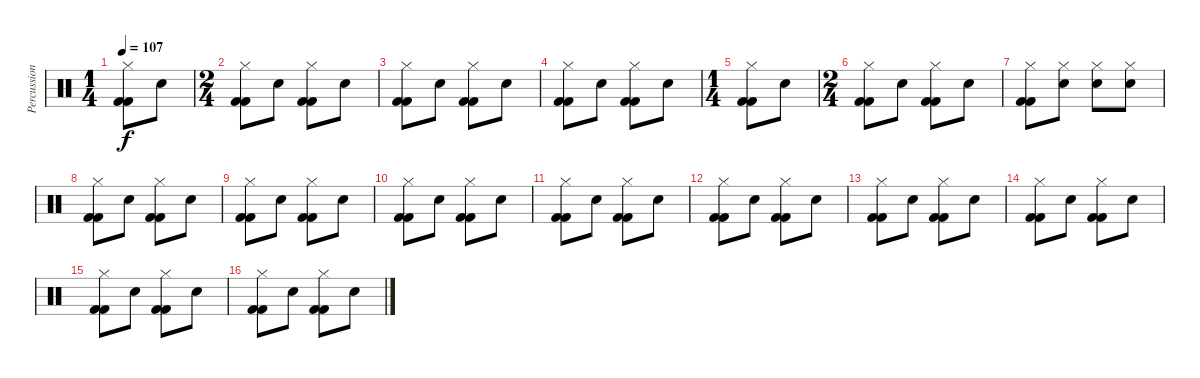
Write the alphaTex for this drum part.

\track ("Percussioni" "Percussion") {instrument percussion}
\staff {score}
\articulation defaults
\ts (1 4)
\tempo 107
\clef neutral
\ks c
("Hi-Hat (closed)" "Kick (hit) 2" "Kick (hit) 2").8{dy f} "Electric Snare (hit)".8 |
\ts (2 4)
("Hi-Hat (closed)" "Kick (hit) 2" "Kick (hit) 2").8 "Electric Snare (hit)".8 ("Hi-Hat (closed)" "Kick (hit) 2" "Kick (hit) 2").8 "Electric Snare (hit)".8 |
("Hi-Hat (closed)" "Kick (hit) 2" "Kick (hit) 2").8 "Electric Snare (hit)".8 ("Hi-Hat (closed)" "Kick (hit) 2" "Kick (hit) 2").8 "Electric Snare (hit)".8 |
("Hi-Hat (closed)" "Kick (hit) 2" "Kick (hit) 2").8 "Electric Snare (hit)".8 ("Hi-Hat (closed)" "Kick (hit) 2" "Kick (hit) 2").8 "Electric Snare (hit)".8 |
\ts (1 4)
("Hi-Hat (closed)" "Kick (hit) 2" "Kick (hit) 2").8 "Electric Snare (hit)".8 |
\ts (2 4)
("Hi-Hat (closed)" "Kick (hit) 2" "Kick (hit) 2").8 "Electric Snare (hit)".8 ("Hi-Hat (closed)" "Kick (hit) 2" "Kick (hit) 2").8 "Electric Snare (hit)".8 |
("Hi-Hat (closed)" "Kick (hit) 2" "Kick (hit) 2").8 ("Hi-Hat (closed)" "Electric Snare (hit)").8 ("Hi-Hat (closed)" "Electric Snare (hit)").8 ("Hi-Hat (closed)" "Electric Snare (hit)").8 |
("Hi-Hat (closed)" "Kick (hit) 2" "Kick (hit) 2").8 "Electric Snare (hit)".8 ("Hi-Hat (closed)" "Kick (hit) 2" "Kick (hit) 2").8 "Electric Snare (hit)".8 |
("Hi-Hat (closed)" "Kick (hit) 2" "Kick (hit) 2").8 "Electric Snare (hit)".8 ("Hi-Hat (closed)" "Kick (hit) 2" "Kick (hit) 2").8 "Electric Snare (hit)".8 |
("Hi-Hat (closed)" "Kick (hit) 2" "Kick (hit) 2").8 "Electric Snare (hit)".8 ("Hi-Hat (closed)" "Kick (hit) 2" "Kick (hit) 2").8 "Electric Snare (hit)".8 |
("Hi-Hat (closed)" "Kick (hit) 2" "Kick (hit) 2").8 "Electric Snare (hit)".8 ("Hi-Hat (closed)" "Kick (hit) 2" "Kick (hit) 2").8 "Electric Snare (hit)".8 |
("Hi-Hat (closed)" "Kick (hit) 2" "Kick (hit) 2").8 "Electric Snare (hit)".8 ("Hi-Hat (closed)" "Kick (hit) 2" "Kick (hit) 2").8 "Electric Snare (hit)".8 |
("Hi-Hat (closed)" "Kick (hit) 2" "Kick (hit) 2").8 "Electric Snare (hit)".8 ("Hi-Hat (closed)" "Kick (hit) 2" "Kick (hit) 2").8 "Electric Snare (hit)".8 |
("Hi-Hat (closed)" "Kick (hit) 2" "Kick (hit) 2").8 "Electric Snare (hit)".8 ("Hi-Hat (closed)" "Kick (hit) 2" "Kick (hit) 2").8 "Electric Snare (hit)".8 |
("Hi-Hat (closed)" "Kick (hit) 2" "Kick (hit) 2").8 "Electric Snare (hit)".8 ("Hi-Hat (closed)" "Kick (hit) 2" "Kick (hit) 2").8 "Electric Snare (hit)".8 |
("Hi-Hat (closed)" "Kick (hit) 2" "Kick (hit) 2").8 "Electric Snare (hit)".8 ("Hi-Hat (closed)" "Kick (hit) 2" "Kick (hit) 2").8 "Electric Snare (hit)".8
